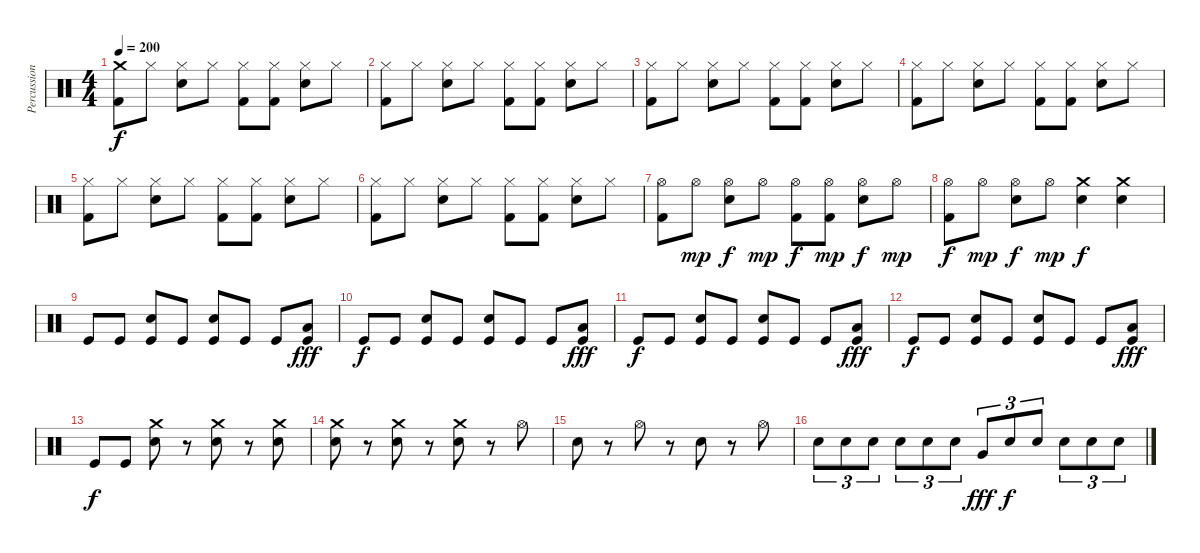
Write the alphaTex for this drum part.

\track ("Percussion" "Percussion") {instrument percussion}
\staff {score}
\articulation defaults
\ts (4 4)
\tempo 200
\clef neutral
\ks c
("Crash medium (hit)" "Kick (hit) 2").8{dy f} "Hi-Hat (closed)".8 ("Hi-Hat (closed)" "Electric Snare (hit)").8 "Hi-Hat (closed)".8 ("Hi-Hat (closed)" "Kick (hit) 2").8 ("Hi-Hat (closed)" "Kick (hit) 2").8 ("Hi-Hat (closed)" "Electric Snare (hit)").8 "Hi-Hat (closed)".8 |
("Hi-Hat (closed)" "Kick (hit) 2").8 "Hi-Hat (closed)".8 ("Hi-Hat (closed)" "Electric Snare (hit)").8 "Hi-Hat (closed)".8 ("Hi-Hat (closed)" "Kick (hit) 2").8 ("Hi-Hat (closed)" "Kick (hit) 2").8 ("Hi-Hat (closed)" "Electric Snare (hit)").8 "Hi-Hat (closed)".8 |
("Hi-Hat (closed)" "Kick (hit) 2").8 "Hi-Hat (closed)".8 ("Hi-Hat (closed)" "Electric Snare (hit)").8 "Hi-Hat (closed)".8 ("Hi-Hat (closed)" "Kick (hit) 2").8 ("Hi-Hat (closed)" "Kick (hit) 2").8 ("Hi-Hat (closed)" "Electric Snare (hit)").8 "Hi-Hat (closed)".8 |
("Hi-Hat (closed)" "Kick (hit) 2").8 "Hi-Hat (closed)".8 ("Hi-Hat (closed)" "Electric Snare (hit)").8 "Hi-Hat (closed)".8 ("Hi-Hat (closed)" "Kick (hit) 2").8 ("Hi-Hat (closed)" "Kick (hit) 2").8 ("Hi-Hat (closed)" "Electric Snare (hit)").8 "Hi-Hat (closed)".8 |
("Hi-Hat (closed)" "Kick (hit) 2").8 "Hi-Hat (closed)".8 ("Hi-Hat (closed)" "Electric Snare (hit)").8 "Hi-Hat (closed)".8 ("Hi-Hat (closed)" "Kick (hit) 2").8 ("Hi-Hat (closed)" "Kick (hit) 2").8 ("Hi-Hat (closed)" "Electric Snare (hit)").8 "Hi-Hat (closed)".8 |
("Hi-Hat (closed)" "Kick (hit) 2").8 "Hi-Hat (closed)".8 ("Hi-Hat (closed)" "Electric Snare (hit)").8 "Hi-Hat (closed)".8 ("Hi-Hat (closed)" "Kick (hit) 2").8 ("Hi-Hat (closed)" "Kick (hit) 2").8 ("Hi-Hat (closed)" "Electric Snare (hit)").8 "Hi-Hat (closed)".8 |
("Hi-Hat (open)" "Kick (hit) 2").8 "Hi-Hat (open)".8{dy mp} ("Hi-Hat (open)" "Electric Snare (hit)").8{dy f} "Hi-Hat (open)".8{dy mp} ("Hi-Hat (open)" "Kick (hit) 2").8{dy f} ("Hi-Hat (open)" "Kick (hit) 2").8{dy mp} ("Hi-Hat (open)" "Electric Snare (hit)").8{dy f} "Hi-Hat (open)".8{dy mp} |
("Hi-Hat (open)" "Kick (hit) 2").8{dy f} "Hi-Hat (open)".8{dy mp} ("Hi-Hat (open)" "Electric Snare (hit)").8{dy f} "Hi-Hat (open)".8{dy mp} ("Crash medium (hit)" "Electric Snare (hit)").4{dy f} ("Crash medium (hit)" "Electric Snare (hit)").4 |
"Kick (hit)".8 "Kick (hit)".8 ("Electric Snare (hit)" "Kick (hit)").8 "Kick (hit)".8 ("Electric Snare (hit)" "Kick (hit)").8 "Kick (hit)".8 "Kick (hit)".8 ("Low Tom (hit)" "Kick (hit)").8{dy fff} |
"Kick (hit)".8{dy f} "Kick (hit)".8 ("Electric Snare (hit)" "Kick (hit)").8 "Kick (hit)".8 ("Electric Snare (hit)" "Kick (hit)").8 "Kick (hit)".8 "Kick (hit)".8 ("Low Tom (hit)" "Kick (hit)").8{dy fff} |
"Kick (hit)".8{dy f} "Kick (hit)".8 ("Electric Snare (hit)" "Kick (hit)").8 "Kick (hit)".8 ("Electric Snare (hit)" "Kick (hit)").8 "Kick (hit)".8 "Kick (hit)".8 ("Low Tom (hit)" "Kick (hit)").8{dy fff} |
"Kick (hit)".8{dy f} "Kick (hit)".8 ("Electric Snare (hit)" "Kick (hit)").8 "Kick (hit)".8 ("Electric Snare (hit)" "Kick (hit)").8 "Kick (hit)".8 "Kick (hit)".8 ("Low Tom (hit)" "Kick (hit)").8{dy fff} |
"Kick (hit)".8{dy f} "Kick (hit)".8 ("Electric Snare (hit)" "Crash medium (hit)").8 r.8 ("Electric Snare (hit)" "Crash medium (hit)").8 r.8 ("Electric Snare (hit)" "Crash medium (hit)").8 |
("Electric Snare (hit)" "Crash medium (hit)").8 r.8 ("Electric Snare (hit)" "Crash medium (hit)").8 r.8 ("Electric Snare (hit)" "Crash medium (hit)").8 r.8 "Hi-Hat (open)".8 |
"Electric Snare (hit)".8 r.8 "Hi-Hat (open)".8 r.8 "Electric Snare (hit)".8 r.8 "Hi-Hat (open)".8 |
"Electric Snare (hit)".8{tu (3 2)} "Electric Snare (hit)".8{tu (3 2)} "Electric Snare (hit)".8{tu (3 2)} "Electric Snare (hit)".8{tu (3 2)} "Electric Snare (hit)".8{tu (3 2)} "Electric Snare (hit)".8{tu (3 2)} "Very Low Tom (hit)".8{tu (3 2) dy fff} "Electric Snare (hit)".8{tu (3 2) dy f} "Electric Snare (hit)".8{tu (3 2)} "Electric Snare (hit)".8{tu (3 2)} "Electric Snare (hit)".8{tu (3 2)} "Electric Snare (hit)".8{tu (3 2)}
